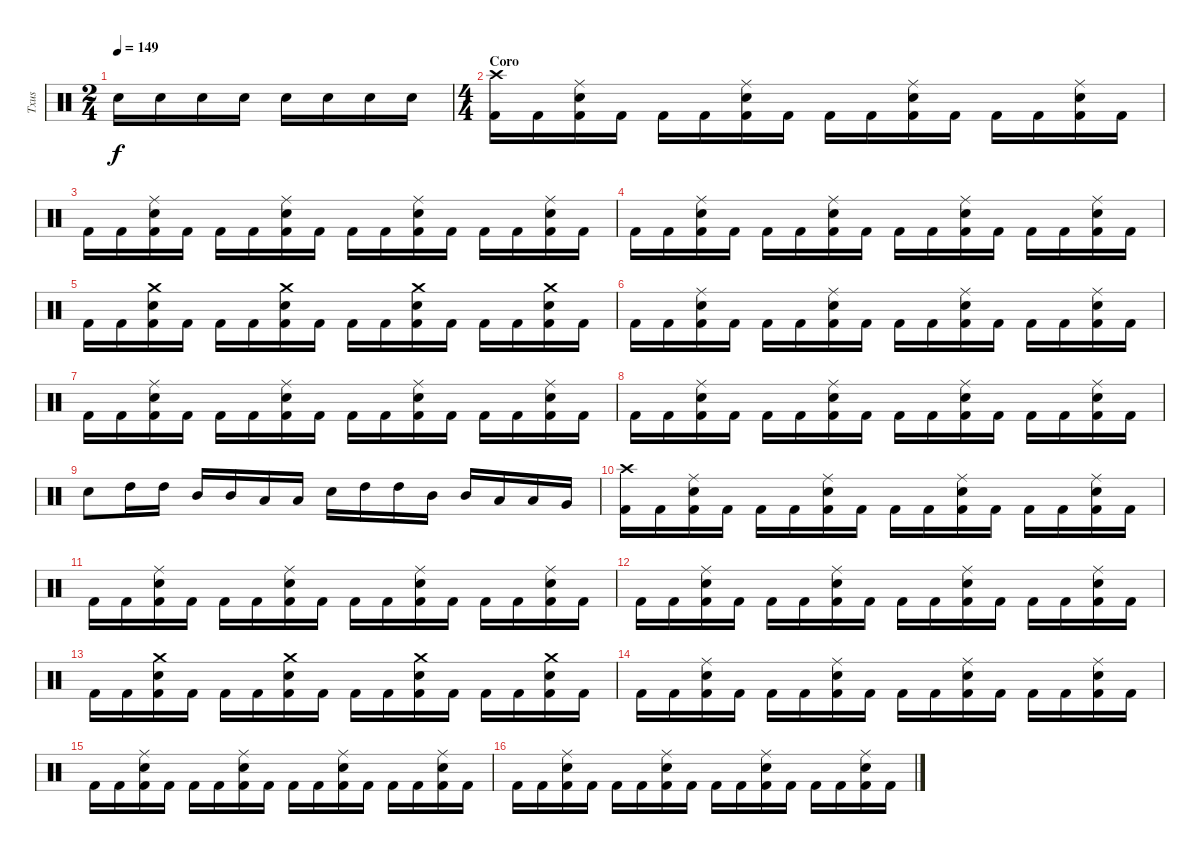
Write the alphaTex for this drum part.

\track ("Txus" "Txus") {instrument percussion}
\staff {score}
\articulation defaults
\ts (2 4)
\tempo 149
\clef neutral
\ks c "Electric Snare (hit)".16{dy f} "Electric Snare (hit)".16 "Electric Snare (hit)".16 "Electric Snare (hit)".16 "Electric Snare (hit)".16 "Electric Snare (hit)".16 "Electric Snare (hit)".16 "Electric Snare (hit)".16
|
\ts (4 4)
\section ("" "Coro")
("Kick (hit) 2" "Crash high (hit)").16 "Kick (hit) 2".16 ("Kick (hit) 2" "Electric Snare (hit)" "Ride (middle)").16 "Kick (hit) 2".16 "Kick (hit) 2".16 "Kick (hit) 2".16 ("Kick (hit) 2" "Electric Snare (hit)" "Ride (middle)").16 "Kick (hit) 2".16 "Kick (hit) 2".16 "Kick (hit) 2".16 ("Kick (hit) 2" "Electric Snare (hit)" "Ride (middle)").16 "Kick (hit) 2".16 "Kick (hit) 2".16 "Kick (hit) 2".16 ("Kick (hit) 2" "Electric Snare (hit)" "Ride (middle)").16 "Kick (hit) 2".16 |
"Kick (hit) 2".16 "Kick (hit) 2".16 ("Kick (hit) 2" "Electric Snare (hit)" "Ride (middle)").16 "Kick (hit) 2".16 "Kick (hit) 2".16 "Kick (hit) 2".16 ("Kick (hit) 2" "Electric Snare (hit)" "Ride (middle)").16 "Kick (hit) 2".16 "Kick (hit) 2".16 "Kick (hit) 2".16 ("Kick (hit) 2" "Electric Snare (hit)" "Ride (middle)").16 "Kick (hit) 2".16 "Kick (hit) 2".16 "Kick (hit) 2".16 ("Kick (hit) 2" "Electric Snare (hit)" "Ride (middle)").16 "Kick (hit) 2".16 |
"Kick (hit) 2".16 "Kick (hit) 2".16 ("Kick (hit) 2" "Electric Snare (hit)" "Ride (middle)").16 "Kick (hit) 2".16 "Kick (hit) 2".16 "Kick (hit) 2".16 ("Kick (hit) 2" "Electric Snare (hit)" "Ride (middle)").16 "Kick (hit) 2".16 "Kick (hit) 2".16 "Kick (hit) 2".16 ("Kick (hit) 2" "Electric Snare (hit)" "Ride (middle)").16 "Kick (hit) 2".16 "Kick (hit) 2".16 "Kick (hit) 2".16 ("Kick (hit) 2" "Electric Snare (hit)" "Ride (middle)").16 "Kick (hit) 2".16 |
"Kick (hit) 2".16 "Kick (hit) 2".16 ("Kick (hit) 2" "Electric Snare (hit)" "Crash medium (hit)").16 "Kick (hit) 2".16 "Kick (hit) 2".16 "Kick (hit) 2".16 ("Kick (hit) 2" "Electric Snare (hit)" "Crash medium (hit)").16 "Kick (hit) 2".16 "Kick (hit) 2".16 "Kick (hit) 2".16 ("Kick (hit) 2" "Electric Snare (hit)" "Crash medium (hit)").16 "Kick (hit) 2".16 "Kick (hit) 2".16 "Kick (hit) 2".16 ("Kick (hit) 2" "Electric Snare (hit)" "Crash medium (hit)").16 "Kick (hit) 2".16 |
"Kick (hit) 2".16 "Kick (hit) 2".16 ("Kick (hit) 2" "Electric Snare (hit)" "Ride (middle)").16 "Kick (hit) 2".16 "Kick (hit) 2".16 "Kick (hit) 2".16 ("Kick (hit) 2" "Electric Snare (hit)" "Ride (middle)").16 "Kick (hit) 2".16 "Kick (hit) 2".16 "Kick (hit) 2".16 ("Kick (hit) 2" "Electric Snare (hit)" "Ride (middle)").16 "Kick (hit) 2".16 "Kick (hit) 2".16 "Kick (hit) 2".16 ("Kick (hit) 2" "Electric Snare (hit)" "Ride (middle)").16 "Kick (hit) 2".16 |
"Kick (hit) 2".16 "Kick (hit) 2".16 ("Kick (hit) 2" "Electric Snare (hit)" "Ride (middle)").16 "Kick (hit) 2".16 "Kick (hit) 2".16 "Kick (hit) 2".16 ("Kick (hit) 2" "Electric Snare (hit)" "Ride (middle)").16 "Kick (hit) 2".16 "Kick (hit) 2".16 "Kick (hit) 2".16 ("Kick (hit) 2" "Electric Snare (hit)" "Ride (middle)").16 "Kick (hit) 2".16 "Kick (hit) 2".16 "Kick (hit) 2".16 ("Kick (hit) 2" "Electric Snare (hit)" "Ride (middle)").16 "Kick (hit) 2".16 |
"Kick (hit) 2".16 "Kick (hit) 2".16 ("Kick (hit) 2" "Electric Snare (hit)" "Ride (middle)").16 "Kick (hit) 2".16 "Kick (hit) 2".16 "Kick (hit) 2".16 ("Kick (hit) 2" "Electric Snare (hit)" "Ride (middle)").16 "Kick (hit) 2".16 "Kick (hit) 2".16 "Kick (hit) 2".16 ("Kick (hit) 2" "Electric Snare (hit)" "Ride (middle)").16 "Kick (hit) 2".16 "Kick (hit) 2".16 "Kick (hit) 2".16 ("Kick (hit) 2" "Electric Snare (hit)" "Ride (middle)").16 "Kick (hit) 2".16 |
"Electric Snare (hit)".8 "High Tom (hit)".16 "High Tom (hit)".16 "Mid Tom (hit)".16 "Mid Tom (hit)".16 "Low Tom (hit)".16 "Low Tom (hit)".16 "Electric Snare (hit)".16 "High Tom (hit)".16 "High Tom (hit)".16 "Mid Tom (hit)".16 "Mid Tom (hit)".16 "Low Tom (hit)".16 "Low Tom (hit)".16 "Very Low Tom (hit)".16 |
("Kick (hit) 2" "Crash high (hit)").16 "Kick (hit) 2".16 ("Kick (hit) 2" "Electric Snare (hit)" "Ride (middle)").16 "Kick (hit) 2".16 "Kick (hit) 2".16 "Kick (hit) 2".16 ("Kick (hit) 2" "Electric Snare (hit)" "Ride (middle)").16 "Kick (hit) 2".16 "Kick (hit) 2".16 "Kick (hit) 2".16 ("Kick (hit) 2" "Electric Snare (hit)" "Ride (middle)").16 "Kick (hit) 2".16 "Kick (hit) 2".16 "Kick (hit) 2".16 ("Kick (hit) 2" "Electric Snare (hit)" "Ride (middle)").16 "Kick (hit) 2".16 |
"Kick (hit) 2".16 "Kick (hit) 2".16 ("Kick (hit) 2" "Electric Snare (hit)" "Ride (middle)").16 "Kick (hit) 2".16 "Kick (hit) 2".16 "Kick (hit) 2".16 ("Kick (hit) 2" "Electric Snare (hit)" "Ride (middle)").16 "Kick (hit) 2".16 "Kick (hit) 2".16 "Kick (hit) 2".16 ("Kick (hit) 2" "Electric Snare (hit)" "Ride (middle)").16 "Kick (hit) 2".16 "Kick (hit) 2".16 "Kick (hit) 2".16 ("Kick (hit) 2" "Electric Snare (hit)" "Ride (middle)").16 "Kick (hit) 2".16 |
"Kick (hit) 2".16 "Kick (hit) 2".16 ("Kick (hit) 2" "Electric Snare (hit)" "Ride (middle)").16 "Kick (hit) 2".16 "Kick (hit) 2".16 "Kick (hit) 2".16 ("Kick (hit) 2" "Electric Snare (hit)" "Ride (middle)").16 "Kick (hit) 2".16 "Kick (hit) 2".16 "Kick (hit) 2".16 ("Kick (hit) 2" "Electric Snare (hit)" "Ride (middle)").16 "Kick (hit) 2".16 "Kick (hit) 2".16 "Kick (hit) 2".16 ("Kick (hit) 2" "Electric Snare (hit)" "Ride (middle)").16 "Kick (hit) 2".16 |
"Kick (hit) 2".16 "Kick (hit) 2".16 ("Kick (hit) 2" "Electric Snare (hit)" "Crash medium (hit)").16 "Kick (hit) 2".16 "Kick (hit) 2".16 "Kick (hit) 2".16 ("Kick (hit) 2" "Electric Snare (hit)" "Crash medium (hit)").16 "Kick (hit) 2".16 "Kick (hit) 2".16 "Kick (hit) 2".16 ("Kick (hit) 2" "Electric Snare (hit)" "Crash medium (hit)").16 "Kick (hit) 2".16 "Kick (hit) 2".16 "Kick (hit) 2".16 ("Kick (hit) 2" "Electric Snare (hit)" "Crash medium (hit)").16 "Kick (hit) 2".16 |
"Kick (hit) 2".16 "Kick (hit) 2".16 ("Kick (hit) 2" "Electric Snare (hit)" "Ride (middle)").16 "Kick (hit) 2".16 "Kick (hit) 2".16 "Kick (hit) 2".16 ("Kick (hit) 2" "Electric Snare (hit)" "Ride (middle)").16 "Kick (hit) 2".16 "Kick (hit) 2".16 "Kick (hit) 2".16 ("Kick (hit) 2" "Electric Snare (hit)" "Ride (middle)").16 "Kick (hit) 2".16 "Kick (hit) 2".16 "Kick (hit) 2".16 ("Kick (hit) 2" "Electric Snare (hit)" "Ride (middle)").16 "Kick (hit) 2".16 |
"Kick (hit) 2".16 "Kick (hit) 2".16 ("Kick (hit) 2" "Electric Snare (hit)" "Ride (middle)").16 "Kick (hit) 2".16 "Kick (hit) 2".16 "Kick (hit) 2".16 ("Kick (hit) 2" "Electric Snare (hit)" "Ride (middle)").16 "Kick (hit) 2".16 "Kick (hit) 2".16 "Kick (hit) 2".16 ("Kick (hit) 2" "Electric Snare (hit)" "Ride (middle)").16 "Kick (hit) 2".16 "Kick (hit) 2".16 "Kick (hit) 2".16 ("Kick (hit) 2" "Electric Snare (hit)" "Ride (middle)").16 "Kick (hit) 2".16 |
"Kick (hit) 2".16 "Kick (hit) 2".16 ("Kick (hit) 2" "Electric Snare (hit)" "Ride (middle)").16 "Kick (hit) 2".16 "Kick (hit) 2".16 "Kick (hit) 2".16 ("Kick (hit) 2" "Electric Snare (hit)" "Ride (middle)").16 "Kick (hit) 2".16 "Kick (hit) 2".16 "Kick (hit) 2".16 ("Kick (hit) 2" "Electric Snare (hit)" "Ride (middle)").16 "Kick (hit) 2".16 "Kick (hit) 2".16 "Kick (hit) 2".16 ("Kick (hit) 2" "Electric Snare (hit)" "Ride (middle)").16 "Kick (hit) 2".16
